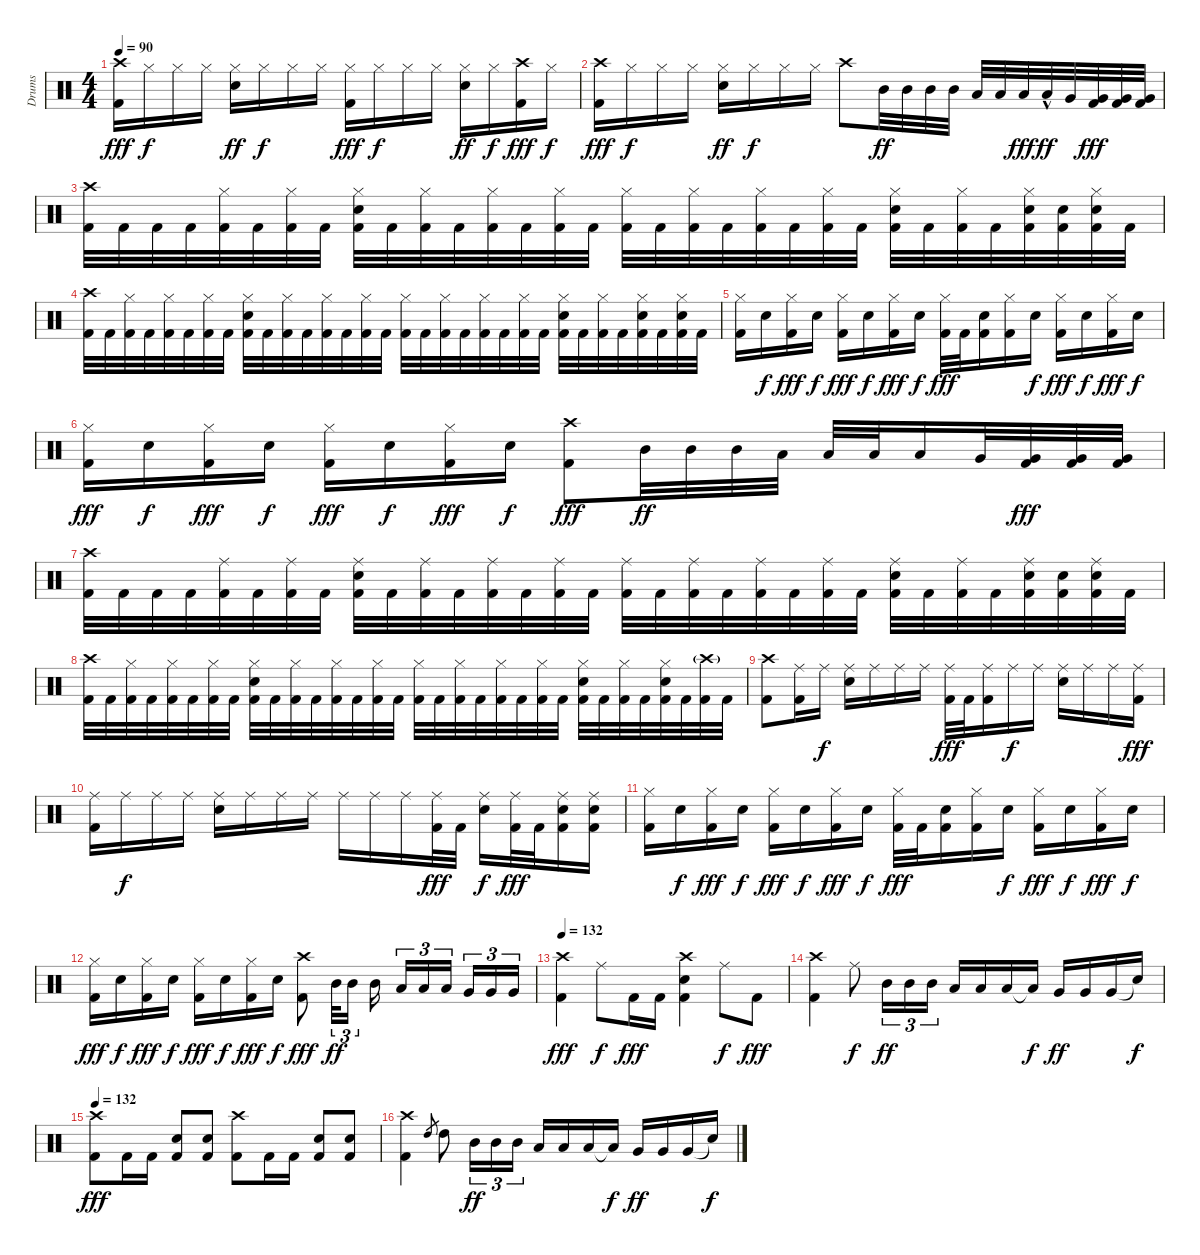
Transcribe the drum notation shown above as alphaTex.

\track ("Drums" "Drums") {instrument percussion}
\staff {score}
\articulation defaults
\ts (4 4)
\tempo 90
\clef neutral
\ks c
("Crash high (hit)" "Kick (hit) 2").16{dy fff} "Hi-Hat (closed)".16{dy f} "Hi-Hat (closed)".16 "Hi-Hat (closed)".16 ("Hi-Hat (closed)" "Snare (hit) 2").16{dy ff} "Hi-Hat (closed)".16{dy f} "Hi-Hat (closed)".16 "Hi-Hat (closed)".16 ("Hi-Hat (closed)" "Kick (hit) 2").16{dy fff} "Hi-Hat (closed)".16{dy f} "Hi-Hat (closed)".16 "Hi-Hat (closed)".16 ("Hi-Hat (closed)" "Snare (hit) 2").16{dy ff} "Hi-Hat (closed)".16{dy f} ("Crash high (hit)" "Kick (hit) 2").16{dy fff} "Hi-Hat (closed)".16{dy f} |
("Crash high (hit)" "Kick (hit) 2").16{dy fff} "Hi-Hat (closed)".16{dy f} "Hi-Hat (closed)".16 "Hi-Hat (closed)".16 ("Hi-Hat (closed)" "Snare (hit) 2").16{dy ff} "Hi-Hat (closed)".16{dy f} "Hi-Hat (closed)".16 "Hi-Hat (closed)".16 "Crash high (hit)".8 "Mid Tom (hit)".32{dy ff} "Mid Tom (hit)".32 "Mid Tom (hit)".32 "Mid Tom (hit)".32 "Low Tom (hit)".32 "Low Tom (hit)".32 "Low Tom (hit)".32{dy fff} "Low Tom (hit)"{hac}.32{dy ff} "Very Low Tom (hit)".32 ("Very Low Tom (hit)" "Kick (hit) 2").32{dy fff} ("Very Low Tom (hit)" "Kick (hit) 2").32 ("Very Low Tom (hit)" "Kick (hit) 2").32 |
("Crash high (hit)" "Kick (hit) 2").32 "Kick (hit) 2".32 "Kick (hit) 2".32 "Kick (hit) 2".32 ("Hi-Hat (closed)" "Kick (hit) 2").32 "Kick (hit) 2".32 ("Hi-Hat (closed)" "Kick (hit) 2").32 "Kick (hit) 2".32 ("Hi-Hat (closed)" "Snare (hit) 2" "Kick (hit) 2").32 "Kick (hit) 2".32 ("Hi-Hat (closed)" "Kick (hit) 2").32 "Kick (hit) 2".32 ("Hi-Hat (closed)" "Kick (hit) 2").32 "Kick (hit) 2".32 ("Hi-Hat (closed)" "Kick (hit) 2").32 "Kick (hit) 2".32 ("Hi-Hat (closed)" "Kick (hit) 2").32 "Kick (hit) 2".32 ("Hi-Hat (closed)" "Kick (hit) 2").32 "Kick (hit) 2".32 ("Hi-Hat (closed)" "Kick (hit) 2").32 "Kick (hit) 2".32 ("Hi-Hat (closed)" "Kick (hit) 2").32 "Kick (hit) 2".32 ("Hi-Hat (closed)" "Snare (hit) 2" "Kick (hit) 2").32 "Kick (hit) 2".32 ("Hi-Hat (closed)" "Kick (hit) 2").32 "Kick (hit) 2".32 ("Hi-Hat (closed)" "Snare (hit) 2" "Kick (hit) 2").32 ("Snare (hit) 2" "Kick (hit) 2").32 ("Hi-Hat (closed)" "Snare (hit) 2" "Kick (hit) 2").32 "Kick (hit) 2".32 |
("Crash high (hit)" "Kick (hit) 2").32 "Kick (hit) 2".32 ("Hi-Hat (closed)" "Kick (hit) 2").32 "Kick (hit) 2".32 ("Hi-Hat (closed)" "Kick (hit) 2").32 "Kick (hit) 2".32 ("Hi-Hat (closed)" "Kick (hit) 2").32 "Kick (hit) 2".32 ("Hi-Hat (closed)" "Snare (hit) 2" "Kick (hit) 2").32 "Kick (hit) 2".32 ("Hi-Hat (closed)" "Kick (hit) 2").32 "Kick (hit) 2".32 ("Hi-Hat (closed)" "Kick (hit) 2").32 "Kick (hit) 2".32 ("Hi-Hat (closed)" "Kick (hit) 2").32 "Kick (hit) 2".32 ("Hi-Hat (closed)" "Kick (hit) 2").32 "Kick (hit) 2".32 ("Hi-Hat (closed)" "Kick (hit) 2").32 "Kick (hit) 2".32 ("Hi-Hat (closed)" "Kick (hit) 2").32 "Kick (hit) 2".32 ("Hi-Hat (closed)" "Kick (hit) 2").32 "Kick (hit) 2".32 ("Hi-Hat (closed)" "Snare (hit) 2" "Kick (hit) 2").32 "Kick (hit) 2".32 ("Hi-Hat (closed)" "Kick (hit) 2").32 "Kick (hit) 2".32 ("Hi-Hat (closed)" "Snare (hit) 2" "Kick (hit) 2").32 "Kick (hit) 2".32 ("Hi-Hat (closed)" "Snare (hit) 2" "Kick (hit) 2").32 "Kick (hit) 2".32 |
("Hi-Hat (closed)" "Kick (hit) 2").16 "Snare (hit) 2".16{dy f} ("Hi-Hat (closed)" "Kick (hit) 2").16{dy fff} "Snare (hit) 2".16{dy f} ("Hi-Hat (closed)" "Kick (hit) 2").16{dy fff} "Snare (hit) 2".16{dy f} ("Hi-Hat (closed)" "Kick (hit) 2").16{dy fff} "Snare (hit) 2".16{dy f} ("Hi-Hat (closed)" "Kick (hit) 2").32{dy fff} "Kick (hit) 2".32 ("Snare (hit) 2" "Kick (hit) 2").16 ("Hi-Hat (closed)" "Kick (hit) 2").16 "Snare (hit) 2".16{dy f} ("Hi-Hat (closed)" "Kick (hit) 2").16{dy fff} "Snare (hit) 2".16{dy f} ("Hi-Hat (closed)" "Kick (hit) 2").16{dy fff} "Snare (hit) 2".16{dy f} |
("Hi-Hat (closed)" "Kick (hit) 2").16{dy fff} "Snare (hit) 2".16{dy f} ("Hi-Hat (closed)" "Kick (hit) 2").16{dy fff} "Snare (hit) 2".16{dy f} ("Hi-Hat (closed)" "Kick (hit) 2").16{dy fff} "Snare (hit) 2".16{dy f} ("Hi-Hat (closed)" "Kick (hit) 2").16{dy fff} "Snare (hit) 2".16{dy f} ("Crash high (hit)" "Kick (hit) 2").8{dy fff} "Mid Tom (hit)".32{dy ff} "Mid Tom (hit)".32 "Mid Tom (hit)".32 "Low Tom (hit)".32 "Low Tom (hit)".32 "Low Tom (hit)".32 "Low Tom (hit)".16 "Very Low Tom (hit)".32 ("Very Low Tom (hit)" "Kick (hit) 2").32{dy fff} ("Very Low Tom (hit)" "Kick (hit) 2").32 ("Very Low Tom (hit)" "Kick (hit) 2").32 |
("Crash high (hit)" "Kick (hit) 2").32 "Kick (hit) 2".32 "Kick (hit) 2".32 "Kick (hit) 2".32 ("Ride (middle)" "Kick (hit) 2").32 "Kick (hit) 2".32 ("Ride (middle)" "Kick (hit) 2").32 "Kick (hit) 2".32 ("Ride (middle)" "Snare (hit) 2" "Kick (hit) 2").32 "Kick (hit) 2".32 ("Ride (middle)" "Kick (hit) 2").32 "Kick (hit) 2".32 ("Ride (middle)" "Kick (hit) 2").32 "Kick (hit) 2".32 ("Ride (middle)" "Kick (hit) 2").32 "Kick (hit) 2".32 ("Ride (middle)" "Kick (hit) 2").32 "Kick (hit) 2".32 ("Ride (middle)" "Kick (hit) 2").32 "Kick (hit) 2".32 ("Ride (middle)" "Kick (hit) 2").32 "Kick (hit) 2".32 ("Ride (middle)" "Kick (hit) 2").32 "Kick (hit) 2".32 ("Ride (middle)" "Snare (hit) 2" "Kick (hit) 2").32 "Kick (hit) 2".32 ("Ride (middle)" "Kick (hit) 2").32 "Kick (hit) 2".32 ("Ride (middle)" "Snare (hit) 2" "Kick (hit) 2").32 ("Snare (hit) 2" "Kick (hit) 2").32 ("Ride (middle)" "Snare (hit) 2" "Kick (hit) 2").32 "Kick (hit) 2".32 |
("Crash high (hit)" "Kick (hit) 2").32 "Kick (hit) 2".32 ("Hi-Hat (closed)" "Kick (hit) 2").32 "Kick (hit) 2".32 ("Hi-Hat (closed)" "Kick (hit) 2").32 "Kick (hit) 2".32 ("Hi-Hat (closed)" "Kick (hit) 2").32 "Kick (hit) 2".32 ("Hi-Hat (closed)" "Snare (hit) 2" "Kick (hit) 2").32 "Kick (hit) 2".32 ("Hi-Hat (closed)" "Kick (hit) 2").32 "Kick (hit) 2".32 ("Hi-Hat (closed)" "Kick (hit) 2").32 "Kick (hit) 2".32 ("Hi-Hat (closed)" "Kick (hit) 2").32 "Kick (hit) 2".32 ("Hi-Hat (closed)" "Kick (hit) 2").32 "Kick (hit) 2".32 ("Hi-Hat (closed)" "Kick (hit) 2").32 "Kick (hit) 2".32 ("Hi-Hat (closed)" "Kick (hit) 2").32 "Kick (hit) 2".32 ("Hi-Hat (closed)" "Kick (hit) 2").32 "Kick (hit) 2".32 ("Hi-Hat (closed)" "Snare (hit) 2" "Kick (hit) 2").32 "Kick (hit) 2".32 ("Hi-Hat (closed)" "Kick (hit) 2").32 "Kick (hit) 2".32 ("Hi-Hat (closed)" "Snare (hit) 2" "Kick (hit) 2").32 "Kick (hit) 2".32 ("Crash high (hit)"{g} "Kick (hit) 2").32 "Kick (hit) 2".32 |
("Crash high (hit)" "Kick (hit) 2").8 ("Ride (middle)" "Kick (hit) 2").16 "Ride (middle)".16{dy f} ("Ride (middle)" "Snare (hit) 2").16 "Ride (middle)".16 "Ride (middle)".16 "Ride (middle)".16 ("Ride (middle)" "Kick (hit) 2").32{dy fff} "Kick (hit) 2".32 ("Ride (middle)" "Kick (hit) 2").16 "Ride (middle)".16{dy f} "Ride (middle)".16 ("Ride (middle)" "Snare (hit) 2").16 "Ride (middle)".16 "Ride (middle)".16 ("Ride (middle)" "Kick (hit) 2").16{dy fff} |
("Ride (middle)" "Kick (hit) 2").16 "Ride (middle)".16{dy f} "Ride (middle)".16 "Ride (middle)".16 ("Ride (middle)" "Snare (hit) 2").16 "Ride (middle)".16 "Ride (middle)".16 "Ride (middle)".16 "Ride (middle)".16 "Ride (middle)".16 "Ride (middle)".16 ("Ride (middle)" "Kick (hit) 2").32{dy fff} "Kick (hit) 2".32 ("Ride (middle)" "Snare (hit) 2").16{dy f} ("Ride (middle)" "Kick (hit) 2").32{dy fff} "Kick (hit) 2".32 ("Ride (middle)" "Snare (hit) 2" "Kick (hit) 2").16 ("Ride (middle)" "Snare (hit) 2" "Kick (hit) 2").16 |
("Hi-Hat (closed)" "Kick (hit) 2").16 "Snare (hit) 2".16{dy f} ("Hi-Hat (closed)" "Kick (hit) 2").16{dy fff} "Snare (hit) 2".16{dy f} ("Hi-Hat (closed)" "Kick (hit) 2").16{dy fff} "Snare (hit) 2".16{dy f} ("Hi-Hat (closed)" "Kick (hit) 2").16{dy fff} "Snare (hit) 2".16{dy f} ("Hi-Hat (closed)" "Kick (hit) 2").32{dy fff} "Kick (hit) 2".32 ("Snare (hit) 2" "Kick (hit) 2").16 ("Hi-Hat (closed)" "Kick (hit) 2").16 "Snare (hit) 2".16{dy f} ("Hi-Hat (closed)" "Kick (hit) 2").16{dy fff} "Snare (hit) 2".16{dy f} ("Hi-Hat (closed)" "Kick (hit) 2").16{dy fff} "Snare (hit) 2".16{dy f} |
("Hi-Hat (closed)" "Kick (hit) 2").16{dy fff} "Snare (hit) 2".16{dy f} ("Hi-Hat (closed)" "Kick (hit) 2").16{dy fff} "Snare (hit) 2".16{dy f} ("Hi-Hat (closed)" "Kick (hit) 2").16{dy fff} "Snare (hit) 2".16{dy f} ("Hi-Hat (closed)" "Kick (hit) 2").16{dy fff} "Snare (hit) 2".16{dy f} ("Crash high (hit)" "Kick (hit) 2").8{dy fff} "Mid Tom (hit)".32{tu (3 2) dy ff} "Mid Tom (hit)".16{tu (3 2)} "Mid Tom (hit)".16 "Low Tom (hit)".16{tu (3 2)} "Low Tom (hit)".16{tu (3 2)} "Low Tom (hit)".16{tu (3 2)} "Very Low Tom (hit)".16{tu (3 2)} "Very Low Tom (hit)".16{tu (3 2)} "Very Low Tom (hit)".16{tu (3 2)} |
\tempo 132
("Crash high (hit)" "Kick (hit) 2").4{dy fff} "Ride (middle)".8{dy f} "Kick (hit) 2".16{dy fff} "Kick (hit) 2".16 ("Crash high (hit)" "Snare (hit) 2" "Kick (hit) 2").4 "Ride (middle)".8{dy f} "Kick (hit) 2".8{dy fff} |
("Crash high (hit)" "Kick (hit) 2").4 "Ride (middle)".8{dy f} "Mid Tom (hit)".16{tu (3 2) dy ff} "Mid Tom (hit)".16{tu (3 2)} "Mid Tom (hit)".16{tu (3 2)} "Low Tom (hit)".16 "Low Tom (hit)".16 "Low Tom (hit)".16 "Low Tom (hit)"{t}.16{dy f} "Very Low Tom (hit)".16{dy ff} "Very Low Tom (hit)".16 "Very Low Tom (hit)".16 "Snare (hit)"{t}.16{dy f} |
\tempo 132
("Crash high (hit)" "Kick (hit) 2").8{dy fff} "Kick (hit) 2".16 "Kick (hit) 2".16 ("Snare (hit) 2" "Kick (hit) 2").8 ("Snare (hit) 2" "Kick (hit) 2").8 ("Crash high (hit)" "Kick (hit) 2").8 "Kick (hit) 2".16 "Kick (hit) 2".16 ("Snare (hit) 2" "Kick (hit) 2").8 ("Snare (hit) 2" "Kick (hit) 2").8 |
("Crash high (hit)" "Kick (hit) 2").4 "High Tom (hit)".8{gr} "High Tom (hit)".8 "Mid Tom (hit)".16{tu (3 2) dy ff} "Mid Tom (hit)".16{tu (3 2)} "Mid Tom (hit)".16{tu (3 2)} "Low Tom (hit)".16 "Low Tom (hit)".16 "Low Tom (hit)".16 "Low Tom (hit)"{t}.16{dy f} "Very Low Tom (hit)".16{dy ff} "Very Low Tom (hit)".16 "Very Low Tom (hit)".16 "Snare (hit)"{t}.16{dy f}
